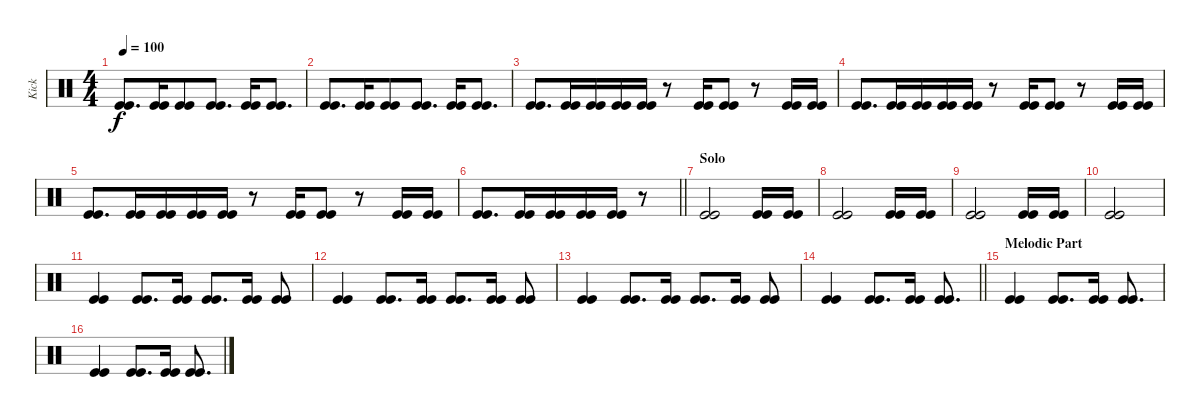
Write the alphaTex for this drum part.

\track ("Kick" "Kick") {instrument percussion}
\staff {score}
\articulation defaults
\ts (4 4)
\tempo 100
\clef neutral
\ks c
("Kick (hit)" "Kick (hit)").8{d dy f} ("Kick (hit)" "Kick (hit)").16{beam merge} ("Kick (hit)" "Kick (hit)").8{beam merge} ("Kick (hit)" "Kick (hit)").8{d} ("Kick (hit)" "Kick (hit)").16{beam merge} ("Kick (hit)" "Kick (hit)").8{d} |
("Kick (hit)" "Kick (hit)").8{d} ("Kick (hit)" "Kick (hit)").16{beam merge} ("Kick (hit)" "Kick (hit)").8{beam merge} ("Kick (hit)" "Kick (hit)").8{d} ("Kick (hit)" "Kick (hit)").16{beam merge} ("Kick (hit)" "Kick (hit)").8{d} |
("Kick (hit)" "Kick (hit)").8{d} ("Kick (hit)" "Kick (hit)").16{beam merge} ("Kick (hit)" "Kick (hit)").16{beam merge} ("Kick (hit)" "Kick (hit)").16 ("Kick (hit)" "Kick (hit)").16 r.8{beam merge} ("Kick (hit)" "Kick (hit)").16 ("Kick (hit)" "Kick (hit)").8 r.8{beam merge} ("Kick (hit)" "Kick (hit)").16{beam merge} ("Kick (hit)" "Kick (hit)").16 |
("Kick (hit)" "Kick (hit)").8{d} ("Kick (hit)" "Kick (hit)").16{beam merge} ("Kick (hit)" "Kick (hit)").16{beam merge} ("Kick (hit)" "Kick (hit)").16 ("Kick (hit)" "Kick (hit)").16 r.8{beam merge} ("Kick (hit)" "Kick (hit)").16 ("Kick (hit)" "Kick (hit)").8 r.8{beam merge} ("Kick (hit)" "Kick (hit)").16{beam merge} ("Kick (hit)" "Kick (hit)").16 |
("Kick (hit)" "Kick (hit)").8{d} ("Kick (hit)" "Kick (hit)").16{beam merge} ("Kick (hit)" "Kick (hit)").16{beam merge} ("Kick (hit)" "Kick (hit)").16 ("Kick (hit)" "Kick (hit)").16 r.8{beam merge} ("Kick (hit)" "Kick (hit)").16 ("Kick (hit)" "Kick (hit)").8 r.8{beam merge} ("Kick (hit)" "Kick (hit)").16{beam merge} ("Kick (hit)" "Kick (hit)").16 |
\barLineRight lightlight
("Kick (hit)" "Kick (hit)").8{d} ("Kick (hit)" "Kick (hit)").16{beam merge} ("Kick (hit)" "Kick (hit)").16{beam merge} ("Kick (hit)" "Kick (hit)").16 ("Kick (hit)" "Kick (hit)").16 r.8 |
\section ("" "Solo")
("Kick (hit)" "Kick (hit)").2{beam merge} ("Kick (hit)" "Kick (hit)").16 ("Kick (hit)" "Kick (hit)").16 |
("Kick (hit)" "Kick (hit)").2{beam merge} ("Kick (hit)" "Kick (hit)").16 ("Kick (hit)" "Kick (hit)").16 |
("Kick (hit)" "Kick (hit)").2{beam merge} ("Kick (hit)" "Kick (hit)").16 ("Kick (hit)" "Kick (hit)").16 |
("Kick (hit)" "Kick (hit)").2 |
("Kick (hit)" "Kick (hit)").4 ("Kick (hit)" "Kick (hit)").8{d} ("Kick (hit)" "Kick (hit)").16 ("Kick (hit)" "Kick (hit)").8{d} ("Kick (hit)" "Kick (hit)").16 ("Kick (hit)" "Kick (hit)").8 |
("Kick (hit)" "Kick (hit)").4 ("Kick (hit)" "Kick (hit)").8{d} ("Kick (hit)" "Kick (hit)").16 ("Kick (hit)" "Kick (hit)").8{d} ("Kick (hit)" "Kick (hit)").16 ("Kick (hit)" "Kick (hit)").8 |
("Kick (hit)" "Kick (hit)").4 ("Kick (hit)" "Kick (hit)").8{d} ("Kick (hit)" "Kick (hit)").16 ("Kick (hit)" "Kick (hit)").8{d} ("Kick (hit)" "Kick (hit)").16 ("Kick (hit)" "Kick (hit)").8 |
\barLineRight lightlight
("Kick (hit)" "Kick (hit)").4 ("Kick (hit)" "Kick (hit)").8{d} ("Kick (hit)" "Kick (hit)").16 ("Kick (hit)" "Kick (hit)").8{d} |
\section ("" "Melodic Part")
("Kick (hit)" "Kick (hit)").4 ("Kick (hit)" "Kick (hit)").8{d} ("Kick (hit)" "Kick (hit)").16 ("Kick (hit)" "Kick (hit)").8{d} |
("Kick (hit)" "Kick (hit)").4 ("Kick (hit)" "Kick (hit)").8{d} ("Kick (hit)" "Kick (hit)").16 ("Kick (hit)" "Kick (hit)").8{d}
